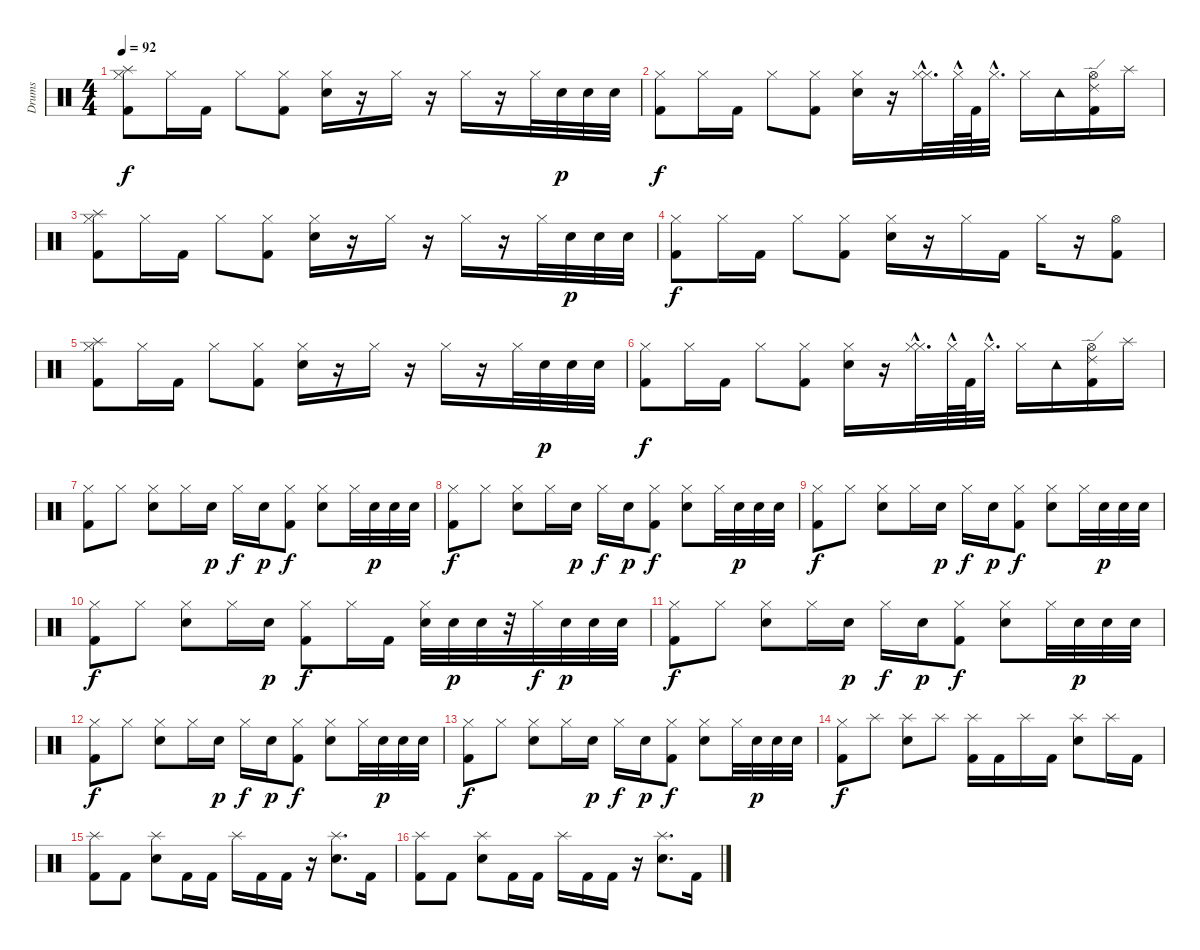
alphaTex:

\track ("Drums" "Drums") {instrument percussion}
\staff {score}
\articulation defaults
\ts (4 4)
\tempo 92
\clef neutral
\ks c
("Splash (hit)" "Hi-Hat (closed)" "Kick (hit) 2").8{dy f} "Hi-Hat (closed)".16 "Kick (hit) 2".16 "Hi-Hat (closed)".8 ("Hi-Hat (closed)" "Kick (hit) 2").8 ("Hi-Hat (closed)" "Electric Snare (hit)").16 r.16 "Hi-Hat (closed)".16 r.16 "Hi-Hat (closed)".16 r.16 "Hi-Hat (closed)".32 "Electric Snare (hit)".32{dy p} "Electric Snare (hit)".32 "Electric Snare (hit)".32 |
("Hi-Hat (closed)" "Kick (hit) 2").8{dy f} "Hi-Hat (closed)".16 "Kick (hit) 2".16 "Hi-Hat (closed)".8 ("Hi-Hat (closed)" "Kick (hit) 2").8 ("Hi-Hat (closed)" "Electric Snare (hit)").16 r.16 ("Hi-Hat (closed)"{hac} "Hi-Hat (closed)"{hac}).32{d} "Hi-Hat (closed)"{hac}.64 "Kick (hit) 2".64 "Hi-Hat (closed)"{hac}.32{d} "Hi-Hat (closed)".16 "Tambourine (hit)".16 ("Ride (edge) 2" "Hi-Hat (open)" "Kick (hit) 2").16 "Splash (hit)".16 |
("Splash (hit)" "Hi-Hat (closed)" "Kick (hit) 2").8 "Hi-Hat (closed)".16 "Kick (hit) 2".16 "Hi-Hat (closed)".8 ("Hi-Hat (closed)" "Kick (hit) 2").8 ("Hi-Hat (closed)" "Electric Snare (hit)").16 r.16 "Hi-Hat (closed)".16 r.16 "Hi-Hat (closed)".16 r.16 "Hi-Hat (closed)".32 "Electric Snare (hit)".32{dy p} "Electric Snare (hit)".32 "Electric Snare (hit)".32 |
("Hi-Hat (closed)" "Kick (hit) 2").8{dy f} "Hi-Hat (closed)".16 "Kick (hit) 2".16 "Hi-Hat (closed)".8 ("Hi-Hat (closed)" "Kick (hit) 2").8 ("Hi-Hat (closed)" "Electric Snare (hit)").16 r.16 "Hi-Hat (closed)".16 "Kick (hit) 2".16 "Hi-Hat (closed)".16 r.16 ("Hi-Hat (open)" "Kick (hit) 2").8 |
("Splash (hit)" "Hi-Hat (closed)" "Kick (hit) 2").8 "Hi-Hat (closed)".16 "Kick (hit) 2".16 "Hi-Hat (closed)".8 ("Hi-Hat (closed)" "Kick (hit) 2").8 ("Hi-Hat (closed)" "Electric Snare (hit)").16 r.16 "Hi-Hat (closed)".16 r.16 "Hi-Hat (closed)".16 r.16 "Hi-Hat (closed)".32 "Electric Snare (hit)".32{dy p} "Electric Snare (hit)".32 "Electric Snare (hit)".32 |
("Hi-Hat (closed)" "Kick (hit) 2").8{dy f} "Hi-Hat (closed)".16 "Kick (hit) 2".16 "Hi-Hat (closed)".8 ("Hi-Hat (closed)" "Kick (hit) 2").8 ("Hi-Hat (closed)" "Electric Snare (hit)").16 r.16 ("Hi-Hat (closed)"{hac} "Hi-Hat (closed)"{hac}).32{d} "Hi-Hat (closed)"{hac}.64 "Kick (hit) 2".64 "Hi-Hat (closed)"{hac}.32{d} "Hi-Hat (closed)".16 "Tambourine (hit)".16 ("Ride (edge) 2" "Hi-Hat (open)" "Kick (hit) 2").16 "Splash (hit)".16 |
("Kick (hit) 2" "Hi-Hat (closed)").8 "Hi-Hat (closed)".8 ("Electric Snare (hit)" "Hi-Hat (closed)").8 "Hi-Hat (closed)".16 "Electric Snare (hit)".16{dy p} "Hi-Hat (closed)".16{dy f} "Electric Snare (hit)".16{dy p} ("Kick (hit) 2" "Hi-Hat (closed)").8{dy f} ("Electric Snare (hit)" "Hi-Hat (closed)").8 "Hi-Hat (closed)".32 "Electric Snare (hit)".32{dy p} "Electric Snare (hit)".32 "Electric Snare (hit)".32 |
("Kick (hit) 2" "Hi-Hat (closed)").8{dy f} "Hi-Hat (closed)".8 ("Electric Snare (hit)" "Hi-Hat (closed)").8 "Hi-Hat (closed)".16 "Electric Snare (hit)".16{dy p} "Hi-Hat (closed)".16{dy f} "Electric Snare (hit)".16{dy p} ("Kick (hit) 2" "Hi-Hat (closed)").8{dy f} ("Electric Snare (hit)" "Hi-Hat (closed)").8 "Hi-Hat (closed)".32 "Electric Snare (hit)".32{dy p} "Electric Snare (hit)".32 "Electric Snare (hit)".32 |
("Kick (hit) 2" "Hi-Hat (closed)").8{dy f} "Hi-Hat (closed)".8 ("Electric Snare (hit)" "Hi-Hat (closed)").8 "Hi-Hat (closed)".16 "Electric Snare (hit)".16{dy p} "Hi-Hat (closed)".16{dy f} "Electric Snare (hit)".16{dy p} ("Kick (hit) 2" "Hi-Hat (closed)").8{dy f} ("Electric Snare (hit)" "Hi-Hat (closed)").8 "Hi-Hat (closed)".32 "Electric Snare (hit)".32{dy p} "Electric Snare (hit)".32 "Electric Snare (hit)".32 |
("Kick (hit) 2" "Hi-Hat (closed)").8{dy f} "Hi-Hat (closed)".8 ("Electric Snare (hit)" "Hi-Hat (closed)").8 "Hi-Hat (closed)".16 "Electric Snare (hit)".16{dy p} ("Hi-Hat (closed)" "Kick (hit) 2").8{dy f} "Hi-Hat (closed)".16 "Kick (hit) 2".16 ("Hi-Hat (closed)" "Electric Snare (hit)").32 "Electric Snare (hit)".32{dy p} "Electric Snare (hit)".32 r.32 "Hi-Hat (closed)".32{dy f} "Electric Snare (hit)".32{dy p} "Electric Snare (hit)".32 "Electric Snare (hit)".32 |
("Kick (hit) 2" "Hi-Hat (closed)").8{dy f} "Hi-Hat (closed)".8 ("Electric Snare (hit)" "Hi-Hat (closed)").8 "Hi-Hat (closed)".16 "Electric Snare (hit)".16{dy p} "Hi-Hat (closed)".16{dy f} "Electric Snare (hit)".16{dy p} ("Kick (hit) 2" "Hi-Hat (closed)").8{dy f} ("Electric Snare (hit)" "Hi-Hat (closed)").8 "Hi-Hat (closed)".32 "Electric Snare (hit)".32{dy p} "Electric Snare (hit)".32 "Electric Snare (hit)".32 |
("Kick (hit) 2" "Hi-Hat (closed)").8{dy f} "Hi-Hat (closed)".8 ("Electric Snare (hit)" "Hi-Hat (closed)").8 "Hi-Hat (closed)".16 "Electric Snare (hit)".16{dy p} "Hi-Hat (closed)".16{dy f} "Electric Snare (hit)".16{dy p} ("Kick (hit) 2" "Hi-Hat (closed)").8{dy f} ("Electric Snare (hit)" "Hi-Hat (closed)").8 "Hi-Hat (closed)".32 "Electric Snare (hit)".32{dy p} "Electric Snare (hit)".32 "Electric Snare (hit)".32 |
("Kick (hit) 2" "Hi-Hat (closed)").8{dy f} "Hi-Hat (closed)".8 ("Electric Snare (hit)" "Hi-Hat (closed)").8 "Hi-Hat (closed)".16 "Electric Snare (hit)".16{dy p} "Hi-Hat (closed)".16{dy f} "Electric Snare (hit)".16{dy p} ("Kick (hit) 2" "Hi-Hat (closed)").8{dy f} ("Electric Snare (hit)" "Hi-Hat (closed)").8 "Hi-Hat (closed)".32 "Electric Snare (hit)".32{dy p} "Electric Snare (hit)".32 "Electric Snare (hit)".32 |
("Hi-Hat (closed)" "Kick (hit) 2").8{dy f} "Splash (hit)".8 ("Electric Snare (hit)" "Splash (hit)").8 "Splash (hit)".8 ("Kick (hit) 2" "Splash (hit)").16 "Kick (hit) 2".16 "Splash (hit)".16 "Kick (hit) 2".16 ("Electric Snare (hit)" "Splash (hit)").8 "Splash (hit)".16 "Kick (hit) 2".16 |
("Splash (hit)" "Kick (hit) 2").8 "Kick (hit) 2".8 ("Splash (hit)" "Electric Snare (hit)").8 "Kick (hit) 2".16 "Kick (hit) 2".16 "Splash (hit)".16 "Kick (hit) 2".16 "Kick (hit) 2".16 r.16 ("Splash (hit)" "Electric Snare (hit)").8{d} "Kick (hit) 2".16 |
("Splash (hit)" "Kick (hit) 2").8 "Kick (hit) 2".8 ("Splash (hit)" "Electric Snare (hit)").8 "Kick (hit) 2".16 "Kick (hit) 2".16 "Splash (hit)".16 "Kick (hit) 2".16 "Kick (hit) 2".16 r.16 ("Splash (hit)" "Electric Snare (hit)").8{d} "Kick (hit) 2".16
